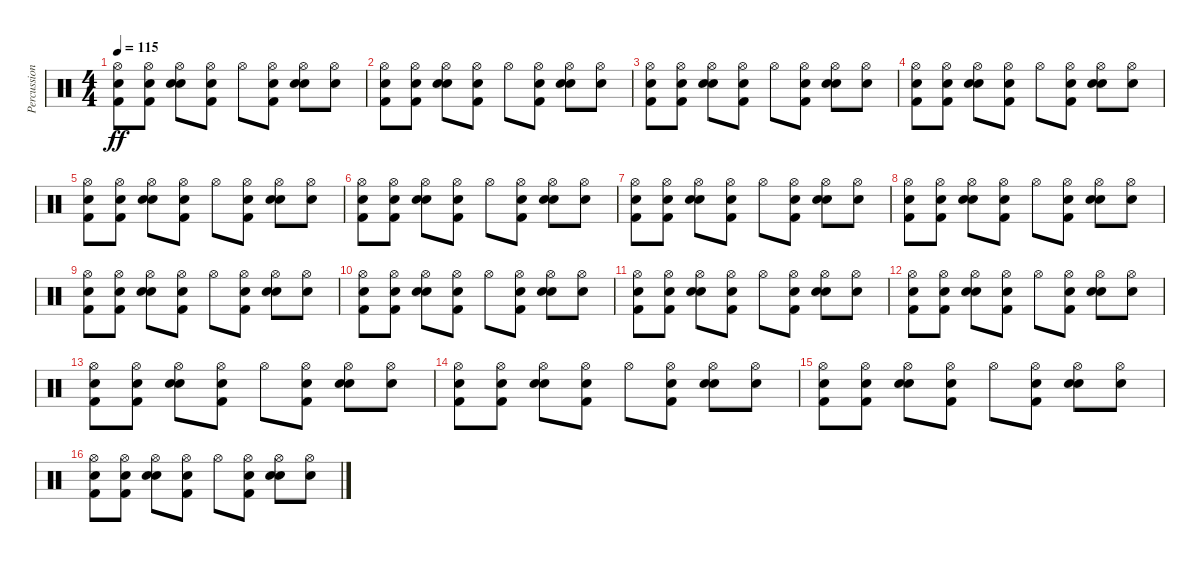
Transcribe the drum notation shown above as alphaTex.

\track ("Percussions / hands" "Percussion") {instrument percussion}
\staff {score}
\articulation defaults
\ts (4 4)
\tempo 115
\clef neutral
\ks c
("Hi-Hat (open)" "Kick (hit) 2" "Hand Clap (hit)").8{dy ff} ("Hi-Hat (open)" "Kick (hit) 2" "Hand Clap (hit)").8 ("Hi-Hat (open)" "Electric Snare (hit)" "Hand Clap (hit)").8 ("Hi-Hat (open)" "Kick (hit) 2" "Hand Clap (hit)").8 "Hi-Hat (open)".8 ("Hi-Hat (open)" "Kick (hit) 2" "Hand Clap (hit)").8 ("Hi-Hat (open)" "Electric Snare (hit)" "Hand Clap (hit)").8 ("Hi-Hat (open)" "Hand Clap (hit)").8 |
("Hi-Hat (open)" "Kick (hit) 2" "Hand Clap (hit)").8 ("Hi-Hat (open)" "Kick (hit) 2" "Hand Clap (hit)").8 ("Hi-Hat (open)" "Electric Snare (hit)" "Hand Clap (hit)").8 ("Hi-Hat (open)" "Kick (hit) 2" "Hand Clap (hit)").8 "Hi-Hat (open)".8 ("Hi-Hat (open)" "Kick (hit) 2" "Hand Clap (hit)").8 ("Hi-Hat (open)" "Electric Snare (hit)" "Hand Clap (hit)").8 ("Hi-Hat (open)" "Hand Clap (hit)").8 |
("Hi-Hat (open)" "Kick (hit) 2" "Hand Clap (hit)").8 ("Hi-Hat (open)" "Kick (hit) 2" "Hand Clap (hit)").8 ("Hi-Hat (open)" "Electric Snare (hit)" "Hand Clap (hit)").8 ("Hi-Hat (open)" "Kick (hit) 2" "Hand Clap (hit)").8 "Hi-Hat (open)".8 ("Hi-Hat (open)" "Kick (hit) 2" "Hand Clap (hit)").8 ("Hi-Hat (open)" "Electric Snare (hit)" "Hand Clap (hit)").8 ("Hi-Hat (open)" "Hand Clap (hit)").8 |
("Hi-Hat (open)" "Kick (hit) 2" "Hand Clap (hit)").8 ("Hi-Hat (open)" "Kick (hit) 2" "Hand Clap (hit)").8 ("Hi-Hat (open)" "Electric Snare (hit)" "Hand Clap (hit)").8 ("Hi-Hat (open)" "Kick (hit) 2" "Hand Clap (hit)").8 "Hi-Hat (open)".8 ("Hi-Hat (open)" "Kick (hit) 2" "Hand Clap (hit)").8 ("Hi-Hat (open)" "Electric Snare (hit)" "Hand Clap (hit)").8 ("Hi-Hat (open)" "Hand Clap (hit)").8 |
("Hi-Hat (open)" "Kick (hit) 2" "Hand Clap (hit)").8 ("Hi-Hat (open)" "Kick (hit) 2" "Hand Clap (hit)").8 ("Hi-Hat (open)" "Electric Snare (hit)" "Hand Clap (hit)").8 ("Hi-Hat (open)" "Kick (hit) 2" "Hand Clap (hit)").8 "Hi-Hat (open)".8 ("Hi-Hat (open)" "Kick (hit) 2" "Hand Clap (hit)").8 ("Hi-Hat (open)" "Electric Snare (hit)" "Hand Clap (hit)").8 ("Hi-Hat (open)" "Hand Clap (hit)").8 |
("Hi-Hat (open)" "Kick (hit) 2" "Hand Clap (hit)").8 ("Hi-Hat (open)" "Kick (hit) 2" "Hand Clap (hit)").8 ("Hi-Hat (open)" "Electric Snare (hit)" "Hand Clap (hit)").8 ("Hi-Hat (open)" "Kick (hit) 2" "Hand Clap (hit)").8 "Hi-Hat (open)".8 ("Hi-Hat (open)" "Kick (hit) 2" "Hand Clap (hit)").8 ("Hi-Hat (open)" "Electric Snare (hit)" "Hand Clap (hit)").8 ("Hi-Hat (open)" "Hand Clap (hit)").8 |
("Hi-Hat (open)" "Kick (hit) 2" "Hand Clap (hit)").8 ("Hi-Hat (open)" "Kick (hit) 2" "Hand Clap (hit)").8 ("Hi-Hat (open)" "Electric Snare (hit)" "Hand Clap (hit)").8 ("Hi-Hat (open)" "Kick (hit) 2" "Hand Clap (hit)").8 "Hi-Hat (open)".8 ("Hi-Hat (open)" "Kick (hit) 2" "Hand Clap (hit)").8 ("Hi-Hat (open)" "Electric Snare (hit)" "Hand Clap (hit)").8 ("Hi-Hat (open)" "Hand Clap (hit)").8 |
("Hi-Hat (open)" "Kick (hit) 2" "Hand Clap (hit)").8 ("Hi-Hat (open)" "Kick (hit) 2" "Hand Clap (hit)").8 ("Hi-Hat (open)" "Electric Snare (hit)" "Hand Clap (hit)").8 ("Hi-Hat (open)" "Kick (hit) 2" "Hand Clap (hit)").8 "Hi-Hat (open)".8 ("Hi-Hat (open)" "Kick (hit) 2" "Hand Clap (hit)").8 ("Hi-Hat (open)" "Electric Snare (hit)" "Hand Clap (hit)").8 ("Hi-Hat (open)" "Hand Clap (hit)").8 |
("Hi-Hat (open)" "Kick (hit) 2" "Hand Clap (hit)").8 ("Hi-Hat (open)" "Kick (hit) 2" "Hand Clap (hit)").8 ("Hi-Hat (open)" "Electric Snare (hit)" "Hand Clap (hit)").8 ("Hi-Hat (open)" "Kick (hit) 2" "Hand Clap (hit)").8 "Hi-Hat (open)".8 ("Hi-Hat (open)" "Kick (hit) 2" "Hand Clap (hit)").8 ("Hi-Hat (open)" "Electric Snare (hit)" "Hand Clap (hit)").8 ("Hi-Hat (open)" "Hand Clap (hit)").8 |
("Hi-Hat (open)" "Kick (hit) 2" "Hand Clap (hit)").8 ("Hi-Hat (open)" "Kick (hit) 2" "Hand Clap (hit)").8 ("Hi-Hat (open)" "Electric Snare (hit)" "Hand Clap (hit)").8 ("Hi-Hat (open)" "Kick (hit) 2" "Hand Clap (hit)").8 "Hi-Hat (open)".8 ("Hi-Hat (open)" "Kick (hit) 2" "Hand Clap (hit)").8 ("Hi-Hat (open)" "Electric Snare (hit)" "Hand Clap (hit)").8 ("Hi-Hat (open)" "Hand Clap (hit)").8 |
("Hi-Hat (open)" "Kick (hit) 2" "Hand Clap (hit)").8 ("Hi-Hat (open)" "Kick (hit) 2" "Hand Clap (hit)").8 ("Hi-Hat (open)" "Electric Snare (hit)" "Hand Clap (hit)").8 ("Hi-Hat (open)" "Kick (hit) 2" "Hand Clap (hit)").8 "Hi-Hat (open)".8 ("Hi-Hat (open)" "Kick (hit) 2" "Hand Clap (hit)").8 ("Hi-Hat (open)" "Electric Snare (hit)" "Hand Clap (hit)").8 ("Hi-Hat (open)" "Hand Clap (hit)").8 |
("Hi-Hat (open)" "Kick (hit) 2" "Hand Clap (hit)").8 ("Hi-Hat (open)" "Kick (hit) 2" "Hand Clap (hit)").8 ("Hi-Hat (open)" "Electric Snare (hit)" "Hand Clap (hit)").8 ("Hi-Hat (open)" "Kick (hit) 2" "Hand Clap (hit)").8 "Hi-Hat (open)".8 ("Hi-Hat (open)" "Kick (hit) 2" "Hand Clap (hit)").8 ("Hi-Hat (open)" "Electric Snare (hit)" "Hand Clap (hit)").8 ("Hi-Hat (open)" "Hand Clap (hit)").8 |
("Hi-Hat (open)" "Kick (hit) 2" "Hand Clap (hit)").8 ("Hi-Hat (open)" "Kick (hit) 2" "Hand Clap (hit)").8 ("Hi-Hat (open)" "Electric Snare (hit)" "Hand Clap (hit)").8 ("Hi-Hat (open)" "Kick (hit) 2" "Hand Clap (hit)").8 "Hi-Hat (open)".8 ("Hi-Hat (open)" "Kick (hit) 2" "Hand Clap (hit)").8 ("Hi-Hat (open)" "Electric Snare (hit)" "Hand Clap (hit)").8 ("Hi-Hat (open)" "Hand Clap (hit)").8 |
("Hi-Hat (open)" "Kick (hit) 2" "Hand Clap (hit)").8 ("Hi-Hat (open)" "Kick (hit) 2" "Hand Clap (hit)").8 ("Hi-Hat (open)" "Electric Snare (hit)" "Hand Clap (hit)").8 ("Hi-Hat (open)" "Kick (hit) 2" "Hand Clap (hit)").8 "Hi-Hat (open)".8 ("Hi-Hat (open)" "Kick (hit) 2" "Hand Clap (hit)").8 ("Hi-Hat (open)" "Electric Snare (hit)" "Hand Clap (hit)").8 ("Hi-Hat (open)" "Hand Clap (hit)").8 |
("Hi-Hat (open)" "Kick (hit) 2" "Hand Clap (hit)").8{volume 5} ("Hi-Hat (open)" "Kick (hit) 2" "Hand Clap (hit)").8 ("Hi-Hat (open)" "Electric Snare (hit)" "Hand Clap (hit)").8 ("Hi-Hat (open)" "Kick (hit) 2" "Hand Clap (hit)").8 "Hi-Hat (open)".8 ("Hi-Hat (open)" "Kick (hit) 2" "Hand Clap (hit)").8 ("Hi-Hat (open)" "Electric Snare (hit)" "Hand Clap (hit)").8 ("Hi-Hat (open)" "Hand Clap (hit)").8 |
("Hi-Hat (open)" "Kick (hit) 2" "Hand Clap (hit)").8 ("Hi-Hat (open)" "Kick (hit) 2" "Hand Clap (hit)").8 ("Hi-Hat (open)" "Electric Snare (hit)" "Hand Clap (hit)").8 ("Hi-Hat (open)" "Kick (hit) 2" "Hand Clap (hit)").8 "Hi-Hat (open)".8 ("Hi-Hat (open)" "Kick (hit) 2" "Hand Clap (hit)").8 ("Hi-Hat (open)" "Electric Snare (hit)" "Hand Clap (hit)").8 ("Hi-Hat (open)" "Hand Clap (hit)").8
